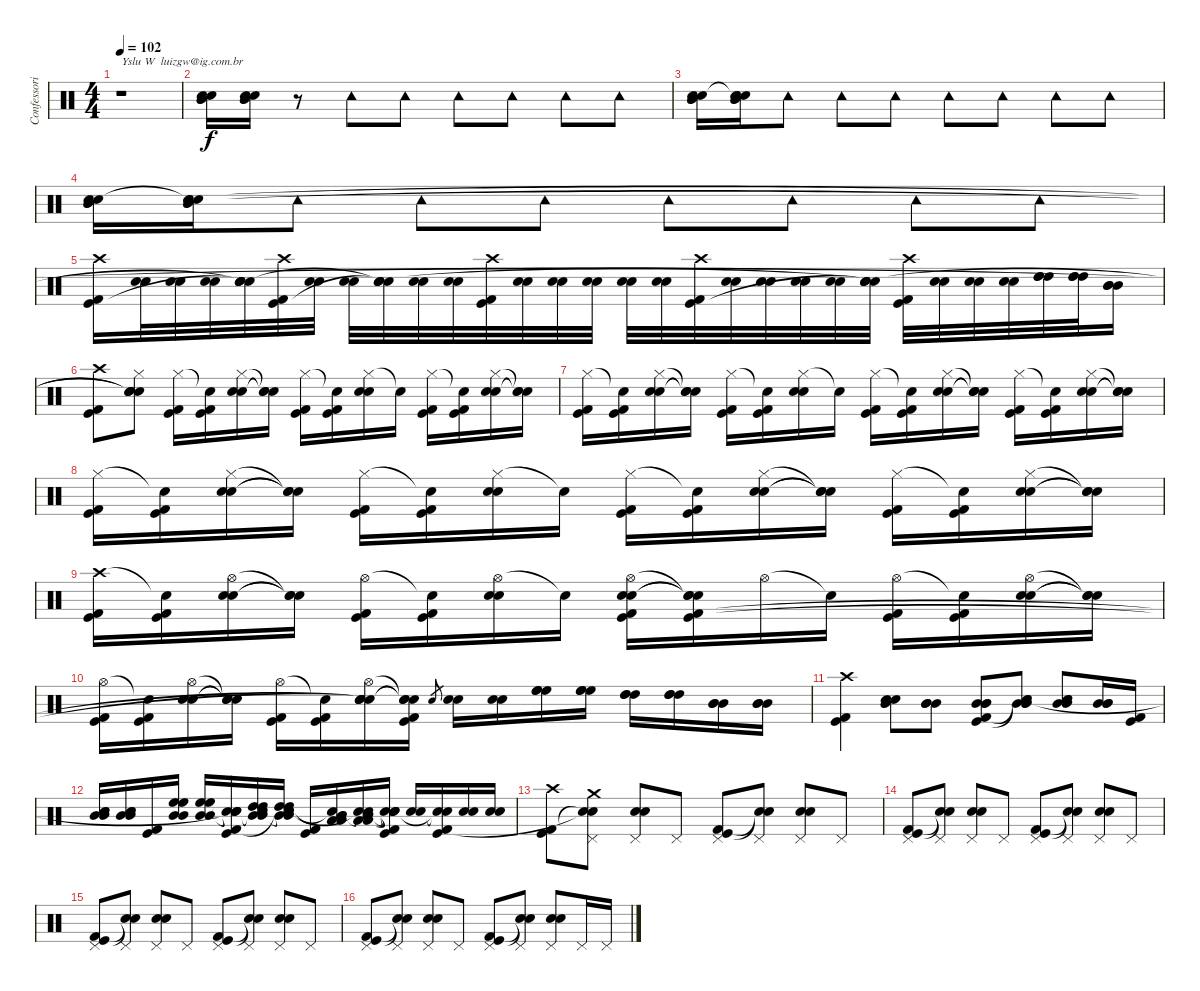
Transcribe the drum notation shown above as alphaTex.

\track ("Confessori" "Confessori") {instrument percussion}
\staff {score}
\articulation defaults
\ts (4 4)
\tempo 102
\clef neutral
\ks c
r.1{txt "Yslu W  luizgw@ig.com.br" dy f} |
("Electric Snare (hit)" "Snare (hit) 2" "Mid Tom (hit)" "Mid Tom (hit)").16 ("Electric Snare (hit)" "Snare (hit) 2" "Mid Tom (hit)" "Mid Tom (hit)").16 r.8 "Tambourine (hit)".8 "Tambourine (hit)".8 "Tambourine (hit)".8 "Tambourine (hit)".8 "Tambourine (hit)".8 "Tambourine (hit)".8 |
("Electric Snare (hit)" "Snare (hit) 2" "Mid Tom (hit)" "Mid Tom (hit)" "Tambourine (hit)").16 ("Electric Snare (hit)" "Snare (hit) 2" "Mid Tom (hit)" "Mid Tom (hit)" "Snare (hit)"{t}).16 "Tambourine (hit)".8 "Tambourine (hit)".8 "Tambourine (hit)".8 "Tambourine (hit)".8 "Tambourine (hit)".8 "Tambourine (hit)".8 "Tambourine (hit)".8 |
("Electric Snare (hit)" "Snare (hit) 2" "Mid Tom (hit)" "Mid Tom (hit)" "Tambourine (hit)").16 ("Electric Snare (hit)" "Snare (hit) 2" "Mid Tom (hit)" "Mid Tom (hit)" "Snare (hit)"{t}).16 "Tambourine (hit)".8 "Tambourine (hit)".8 "Tambourine (hit)".8 "Tambourine (hit)".8 "Tambourine (hit)".8 "Tambourine (hit)".8 "Tambourine (hit)".8 |
("Crash high (hit)" "Kick (hit) 2" "Kick (hit)").16 ("Electric Snare (hit)" "Snare (hit) 2").32 ("Electric Snare (hit)" "Snare (hit) 2").32 ("Electric Snare (hit)" "Snare (hit) 2").32 ("Electric Snare (hit)" "Snare (hit) 2" "Snare (hit)"{t} "Snare (hit)"{t}).32 ("Crash high (hit)" "Kick (hit) 2" "Kick (hit)").32 ("Electric Snare (hit)" "Snare (hit) 2").32 ("Electric Snare (hit)" "Snare (hit) 2").32 ("Electric Snare (hit)" "Snare (hit) 2" "Snare (hit)"{t} "Snare (hit)"{t}).32 ("Electric Snare (hit)" "Snare (hit) 2").32 ("Electric Snare (hit)" "Snare (hit) 2").32 ("Crash high (hit)" "Kick (hit) 2" "Kick (hit)").32 ("Electric Snare (hit)" "Snare (hit) 2").32 ("Electric Snare (hit)" "Snare (hit) 2").32 ("Electric Snare (hit)" "Snare (hit) 2").32 ("Electric Snare (hit)" "Snare (hit) 2").32 ("Electric Snare (hit)" "Snare (hit) 2").32 ("Crash high (hit)" "Kick (hit) 2" "Kick (hit)").32 ("Electric Snare (hit)" "Snare (hit) 2").32 ("Electric Snare (hit)" "Snare (hit) 2").32 ("Electric Snare (hit)" "Snare (hit) 2").32 ("Electric Snare (hit)" "Snare (hit) 2").32 ("Electric Snare (hit)" "Snare (hit) 2" "Snare (hit)"{t} "Snare (hit)"{t}).32 ("Crash high (hit)" "Kick (hit) 2" "Kick (hit)").32 ("Electric Snare (hit)" "Snare (hit) 2").32 ("Electric Snare (hit)" "Snare (hit) 2").32 ("Electric Snare (hit)" "Snare (hit) 2").32 ("High Tom (hit)" "High Tom (hit)" "High Tom (hit)").32 ("High Tom (hit)" "High Tom (hit)" "High Tom (hit)").32 ("Mid Tom (hit)" "Mid Tom (hit)" "Mid Tom (hit)").16 |
("Crash high (hit)" "Kick (hit) 2" "Kick (hit)").8 ("Hi-Hat (closed)" "Electric Snare (hit)" "Snare (hit) 2" "Snare (hit)"{t} "Snare (hit)"{t}).8 ("Hi-Hat (closed)" "Kick (hit) 2" "Kick (hit)").16 ("Snare (hit)"{t} "Kick (hit) 2" "Kick (hit)").16 ("Hi-Hat (closed)" "Electric Snare (hit)" "Snare (hit) 2").16 ("Snare (hit)"{t} "Snare (hit)"{t} "Snare (hit)"{t}).16 ("Hi-Hat (closed)" "Kick (hit) 2" "Kick (hit)").16 ("Snare (hit)"{t} "Kick (hit) 2" "Kick (hit)").16 ("Hi-Hat (closed)" "Electric Snare (hit)" "Snare (hit) 2").16 "Snare (hit)"{t}.16 ("Hi-Hat (closed)" "Kick (hit) 2" "Kick (hit)").16 ("Snare (hit)"{t} "Kick (hit) 2" "Kick (hit)").16 ("Hi-Hat (closed)" "Electric Snare (hit)" "Snare (hit) 2").16 ("Snare (hit)"{t} "Snare (hit)"{t} "Snare (hit)"{t}).16 |
("Hi-Hat (closed)" "Kick (hit) 2" "Kick (hit)").16 ("Snare (hit)"{t} "Kick (hit) 2" "Kick (hit)").16 ("Hi-Hat (closed)" "Electric Snare (hit)" "Snare (hit) 2").16 ("Snare (hit)"{t} "Snare (hit)"{t} "Snare (hit)"{t}).16 ("Hi-Hat (closed)" "Kick (hit) 2" "Kick (hit)").16 ("Snare (hit)"{t} "Kick (hit) 2" "Kick (hit)").16 ("Hi-Hat (closed)" "Electric Snare (hit)" "Snare (hit) 2").16 "Snare (hit)"{t}.16 ("Hi-Hat (closed)" "Kick (hit) 2" "Kick (hit)").16 ("Snare (hit)"{t} "Kick (hit) 2" "Kick (hit)").16 ("Hi-Hat (closed)" "Electric Snare (hit)" "Snare (hit) 2").16 ("Snare (hit)"{t} "Snare (hit)"{t} "Snare (hit)"{t}).16 ("Hi-Hat (closed)" "Kick (hit) 2" "Kick (hit)").16 ("Snare (hit)"{t} "Kick (hit) 2" "Kick (hit)").16 ("Hi-Hat (closed)" "Electric Snare (hit)" "Snare (hit) 2").16 ("Snare (hit)"{t} "Snare (hit)"{t} "Snare (hit)"{t}).16 |
("Hi-Hat (closed)" "Kick (hit) 2" "Kick (hit)").16 ("Snare (hit)"{t} "Kick (hit) 2" "Kick (hit)").16 ("Hi-Hat (closed)" "Electric Snare (hit)" "Snare (hit) 2").16 ("Snare (hit)"{t} "Snare (hit)"{t} "Snare (hit)"{t}).16 ("Hi-Hat (closed)" "Kick (hit) 2" "Kick (hit)").16 ("Snare (hit)"{t} "Kick (hit) 2" "Kick (hit)").16 ("Hi-Hat (closed)" "Electric Snare (hit)" "Snare (hit) 2").16 "Snare (hit)"{t}.16 ("Hi-Hat (closed)" "Kick (hit) 2" "Kick (hit)").16 ("Snare (hit)"{t} "Kick (hit) 2" "Kick (hit)").16 ("Hi-Hat (closed)" "Electric Snare (hit)" "Snare (hit) 2").16 ("Snare (hit)"{t} "Snare (hit)"{t} "Snare (hit)"{t}).16 ("Hi-Hat (closed)" "Kick (hit) 2" "Kick (hit)").16 ("Snare (hit)"{t} "Kick (hit) 2" "Kick (hit)").16 ("Hi-Hat (closed)" "Electric Snare (hit)" "Snare (hit) 2").16 ("Snare (hit)"{t} "Snare (hit)"{t} "Snare (hit)"{t}).16 |
("Crash high (hit)" "Kick (hit) 2" "Kick (hit)").16 ("Snare (hit)"{t} "Kick (hit) 2" "Kick (hit)").16 ("Hi-Hat (open)" "Electric Snare (hit)" "Snare (hit) 2").16 ("Snare (hit)"{t} "Snare (hit)"{t} "Snare (hit)"{t}).16 ("Hi-Hat (open)" "Kick (hit) 2" "Kick (hit)").16 ("Snare (hit)"{t} "Kick (hit) 2" "Kick (hit)").16 ("Hi-Hat (open)" "Electric Snare (hit)" "Snare (hit) 2").16 "Snare (hit)"{t}.16 ("Hi-Hat (open)" "Electric Snare (hit)" "Snare (hit) 2" "Kick (hit) 2" "Kick (hit)").16 ("Snare (hit)"{t} "Snare (hit)"{t} "Snare (hit)"{t} "Kick (hit) 2" "Kick (hit)").16 "Hi-Hat (open)".16 "Snare (hit)"{t}.16 ("Hi-Hat (open)" "Kick (hit) 2" "Kick (hit)").16 ("Snare (hit)"{t} "Kick (hit) 2" "Kick (hit)").16 ("Hi-Hat (open)" "Electric Snare (hit)" "Snare (hit) 2").16 ("Snare (hit)"{t} "Snare (hit)"{t} "Snare (hit)"{t}).16 |
("Hi-Hat (open)" "Kick (hit) 2" "Kick (hit)").16 ("Snare (hit)"{t} "Kick (hit) 2" "Kick (hit)").16 ("Hi-Hat (open)" "Electric Snare (hit)" "Snare (hit) 2").16 ("Snare (hit)"{t} "Snare (hit)"{t} "Snare (hit)"{t}).16 ("Hi-Hat (open)" "Kick (hit) 2" "Kick (hit)").16 ("Snare (hit)"{t} "Kick (hit) 2" "Kick (hit)").16 ("Hi-Hat (open)" "Electric Snare (hit)" "Snare (hit) 2" "Snare (hit)"{t} "Snare (hit)"{t}).16 ("Snare (hit)"{t} "Snare (hit)"{t} "Snare (hit)"{t} "Kick (hit) 2" "Kick (hit)").16 "Electric Snare (hit)".8{gr} ("Electric Snare (hit)" "Snare (hit) 2").16 ("Electric Snare (hit)" "Snare (hit) 2").16 ("High Floor Tom (hit)" "High Floor Tom (hit)" "High Floor Tom (hit)").16 ("High Floor Tom (hit)" "High Floor Tom (hit)" "High Floor Tom (hit)").16 ("High Tom (hit)" "High Tom (hit)" "High Tom (hit)").16 ("High Tom (hit)" "High Tom (hit)" "High Tom (hit)").16 ("Mid Tom (hit)" "Mid Tom (hit)" "Mid Tom (hit)").16 ("Mid Tom (hit)" "Mid Tom (hit)" "Mid Tom (hit)").16 |
("Crash high (hit)" "Kick (hit) 2" "Kick (hit)").4 ("Electric Snare (hit)" "Snare (hit) 2" "Mid Tom (hit)" "Mid Tom (hit)").8 ("Mid Tom (hit)" "Mid Tom (hit)" "Mid Tom (hit)").8 ("Kick (hit)" "Mid Tom (hit)" "Mid Tom (hit)" "Mid Tom (hit)" "Kick (hit) 2").8 ("Snare (hit)"{t} "Mid Tom (hit)" "Mid Tom (hit)" "Mid Tom (hit)" "Snare (hit)"{t}).8 ("Electric Snare (hit)" "Snare (hit) 2" "Mid Tom (hit)" "Mid Tom (hit)").8 ("Mid Tom (hit)" "Mid Tom (hit)" "Mid Tom (hit)").16 ("Kick (hit) 2" "Kick (hit)").16 |
("Electric Snare (hit)" "Snare (hit) 2" "Mid Tom (hit)" "Mid Tom (hit)").16 ("Electric Snare (hit)" "Snare (hit) 2" "Mid Tom (hit)" "Mid Tom (hit)").16 ("Kick (hit)" "Kick (hit) 2").16 ("High Floor Tom (hit)" "High Floor Tom (hit)" "Mid Tom (hit)" "Mid Tom (hit)").16 ("High Floor Tom (hit)" "High Floor Tom (hit)" "Mid Tom (hit)" "Mid Tom (hit)").16 ("Kick (hit)" "Snare (hit)"{t} "Snare (hit)"{t} "Snare (hit)"{t} "Snare (hit)"{t} "Kick (hit) 2").16 ("Mid Tom (hit)" "Mid Tom (hit)" "High Tom (hit)" "High Tom (hit)" "Snare (hit)"{t}).16 ("Snare (hit)"{t} "Mid Tom (hit)" "Mid Tom (hit)" "High Tom (hit)" "High Tom (hit)" "Snare (hit)"{t}).16 ("Kick (hit)" "Kick (hit) 2").16 ("Mid Tom (hit)" "Mid Tom (hit)" "Low Tom (hit)" "Low Tom (hit)" "Snare (hit)"{t}).16 ("Snare (hit)"{t} "Mid Tom (hit)" "Mid Tom (hit)" "Low Tom (hit)" "Low Tom (hit)" "Snare (hit)"{t}).16 ("Kick (hit)" "Snare (hit)"{t} "Snare (hit)"{t} "Snare (hit)"{t} "Snare (hit)"{t} "Kick (hit) 2").16 ("Electric Snare (hit)" "Snare (hit) 2").16 ("Kick (hit)" "Snare (hit)"{t} "Snare (hit)"{t} "Kick (hit) 2").16 ("Electric Snare (hit)" "Snare (hit) 2").16 ("Electric Snare (hit)" "Snare (hit) 2").16 |
("Crash high (hit)" "Kick (hit)" "Kick (hit) 2").8 ("Pedal Hi-Hat (hit)" "Crash medium (hit)" "Snare (hit)"{t} "Snare (hit)"{t}).8 ("Pedal Hi-Hat (hit)" "Electric Snare (hit)" "Snare (hit) 2").8 "Pedal Hi-Hat (hit)".8 ("Pedal Hi-Hat (hit)" "Kick (hit)" "Kick (hit) 2").8 ("Pedal Hi-Hat (hit)" "Snare (hit)"{t} "Snare (hit)"{t}).8 ("Pedal Hi-Hat (hit)" "Electric Snare (hit)" "Snare (hit) 2").8 "Pedal Hi-Hat (hit)".8 |
("Pedal Hi-Hat (hit)" "Kick (hit)" "Kick (hit) 2").8 ("Pedal Hi-Hat (hit)" "Snare (hit)"{t} "Snare (hit)"{t}).8 ("Pedal Hi-Hat (hit)" "Electric Snare (hit)" "Snare (hit) 2").8 "Pedal Hi-Hat (hit)".8 ("Pedal Hi-Hat (hit)" "Kick (hit)" "Kick (hit) 2").8 ("Pedal Hi-Hat (hit)" "Snare (hit)"{t} "Snare (hit)"{t}).8 ("Pedal Hi-Hat (hit)" "Electric Snare (hit)" "Snare (hit) 2").8 "Pedal Hi-Hat (hit)".8 |
("Pedal Hi-Hat (hit)" "Kick (hit)" "Kick (hit) 2").8 ("Pedal Hi-Hat (hit)" "Snare (hit)"{t} "Snare (hit)"{t}).8 ("Pedal Hi-Hat (hit)" "Electric Snare (hit)" "Snare (hit) 2").8 "Pedal Hi-Hat (hit)".8 ("Pedal Hi-Hat (hit)" "Kick (hit)" "Kick (hit) 2").8 ("Pedal Hi-Hat (hit)" "Snare (hit)"{t} "Snare (hit)"{t}).8 ("Pedal Hi-Hat (hit)" "Electric Snare (hit)" "Snare (hit) 2").8 "Pedal Hi-Hat (hit)".8 |
("Pedal Hi-Hat (hit)" "Kick (hit)" "Kick (hit) 2").8 ("Pedal Hi-Hat (hit)" "Snare (hit)"{t} "Snare (hit)"{t}).8 ("Pedal Hi-Hat (hit)" "Electric Snare (hit)" "Snare (hit) 2").8 "Pedal Hi-Hat (hit)".8 ("Pedal Hi-Hat (hit)" "Kick (hit)" "Kick (hit) 2").8 ("Pedal Hi-Hat (hit)" "Snare (hit)"{t} "Snare (hit)"{t}).8 ("Pedal Hi-Hat (hit)" "Electric Snare (hit)" "Snare (hit) 2").8 "Pedal Hi-Hat (hit)".16 "Pedal Hi-Hat (hit)".16
